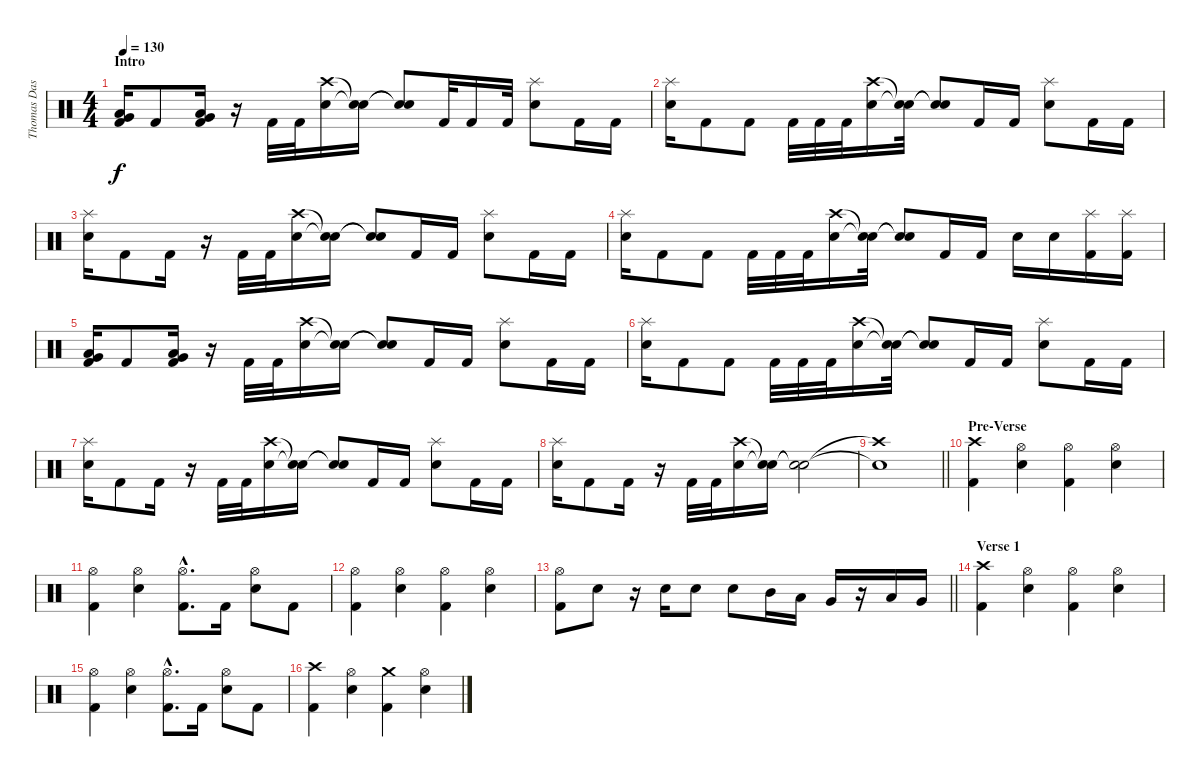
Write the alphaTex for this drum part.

\track ("Thomas Das Neves (Drums)" "Thomas Das") {instrument percussion}
\staff {score}
\articulation defaults
\ts (4 4)
\section ("" "Intro")
\tempo 130
\clef neutral
\ks c
("Very Low Tom (hit)" "Low Floor Tom (hit)" "Kick (hit) 2").16{dy f} "Kick (hit) 2".8 ("Very Low Tom (hit)" "Low Floor Tom (hit)" "Kick (hit) 2").16 r.16 "Kick (hit) 2".32 "Kick (hit) 2".32 ("Crash high (hit)" "Snare (hit) 2").16 ("Snare (hit)"{t} "Snare (hit)"{t}).16 ("Snare (hit)"{t} "Snare (hit)"{t}).8 "Kick (hit) 2".32 "Kick (hit) 2".16 "Kick (hit) 2".32 ("Splash (hit)" "Snare (hit) 2").8 "Kick (hit) 2".16 "Kick (hit) 2".16 |
("Splash (hit)" "Snare (hit) 2").16 "Kick (hit) 2".8 "Kick (hit) 2".8 "Kick (hit) 2".32 "Kick (hit) 2".32 "Kick (hit) 2".32 ("Crash high (hit)" "Snare (hit) 2").16 ("Snare (hit)"{t} "Snare (hit)"{t}).32 ("Snare (hit)"{t} "Snare (hit)"{t}).8 "Kick (hit) 2".16 "Kick (hit) 2".16 ("Splash (hit)" "Snare (hit) 2").8 "Kick (hit) 2".16 "Kick (hit) 2".16 |
("Splash (hit)" "Snare (hit) 2").16 "Kick (hit) 2".8 "Kick (hit) 2".16 r.16 "Kick (hit) 2".32 "Kick (hit) 2".32 ("Crash high (hit)" "Snare (hit) 2").16 ("Snare (hit)"{t} "Snare (hit)"{t}).16 ("Snare (hit)"{t} "Snare (hit)"{t}).8 "Kick (hit) 2".16 "Kick (hit) 2".16 ("Splash (hit)" "Snare (hit) 2").8 "Kick (hit) 2".16 "Kick (hit) 2".16 |
("Splash (hit)" "Snare (hit) 2").16 "Kick (hit) 2".8 "Kick (hit) 2".8 "Kick (hit) 2".32 "Kick (hit) 2".32 "Kick (hit) 2".32 ("Crash high (hit)" "Snare (hit) 2").16 ("Snare (hit)"{t} "Snare (hit)"{t}).32 ("Snare (hit)"{t} "Snare (hit)"{t}).8 "Kick (hit) 2".16 "Kick (hit) 2".16 "Snare (hit) 2".16 "Snare (hit) 2".16 ("Splash (hit)" "Kick (hit) 2").16 ("Splash (hit)" "Kick (hit) 2").16 |
("Very Low Tom (hit)" "Low Floor Tom (hit)" "Kick (hit) 2").16 "Kick (hit) 2".8 ("Very Low Tom (hit)" "Low Floor Tom (hit)" "Kick (hit) 2").16 r.16 "Kick (hit) 2".32 "Kick (hit) 2".32 ("Crash high (hit)" "Snare (hit) 2").16 ("Snare (hit)"{t} "Snare (hit)"{t}).16 ("Snare (hit)"{t} "Snare (hit)"{t}).8 "Kick (hit) 2".16 "Kick (hit) 2".16 ("Splash (hit)" "Snare (hit) 2").8 "Kick (hit) 2".16 "Kick (hit) 2".16 |
("Splash (hit)" "Snare (hit) 2").16 "Kick (hit) 2".8 "Kick (hit) 2".8 "Kick (hit) 2".32 "Kick (hit) 2".32 "Kick (hit) 2".32 ("Crash high (hit)" "Snare (hit) 2").16 ("Snare (hit)"{t} "Snare (hit)"{t}).32 ("Snare (hit)"{t} "Snare (hit)"{t}).8 "Kick (hit) 2".16 "Kick (hit) 2".16 ("Splash (hit)" "Snare (hit) 2").8 "Kick (hit) 2".16 "Kick (hit) 2".16 |
("Splash (hit)" "Snare (hit) 2").16 "Kick (hit) 2".8 "Kick (hit) 2".16 r.16 "Kick (hit) 2".32 "Kick (hit) 2".32 ("Crash high (hit)" "Snare (hit) 2").16 ("Snare (hit)"{t} "Snare (hit)"{t}).16 ("Snare (hit)"{t} "Snare (hit)"{t}).8 "Kick (hit) 2".16 "Kick (hit) 2".16 ("Splash (hit)" "Snare (hit) 2").8 "Kick (hit) 2".16 "Kick (hit) 2".16 |
("Splash (hit)" "Snare (hit) 2").16 "Kick (hit) 2".8 "Kick (hit) 2".16 r.16 "Kick (hit) 2".32 "Kick (hit) 2".32 ("Crash high (hit)" "Snare (hit) 2").16 ("Snare (hit)"{t} "Snare (hit)"{t}).16 ("Snare (hit)"{t} "Snare (hit)"{t}).2 |
\barLineRight lightlight
("Crash high (hit)"{t} "Snare (hit)"{t}).1 |
\section ("" "Pre-Verse")
("Crash high (hit)" "Kick (hit) 2").4 ("Hi-Hat (open)" "Snare (hit) 2").4 ("Hi-Hat (open)" "Kick (hit) 2").4 ("Hi-Hat (open)" "Snare (hit) 2").4 |
("Hi-Hat (open)" "Kick (hit) 2").4 ("Hi-Hat (open)" "Snare (hit) 2").4 ("Hi-Hat (open)"{hac} "Kick (hit) 2"{hac}).8{d} "Kick (hit) 2".16 ("Hi-Hat (open)" "Snare (hit) 2").8 "Kick (hit) 2".8 |
("Hi-Hat (open)" "Kick (hit) 2").4 ("Hi-Hat (open)" "Snare (hit) 2").4 ("Hi-Hat (open)" "Kick (hit) 2").4 ("Hi-Hat (open)" "Snare (hit) 2").4 |
\barLineRight lightlight
("Hi-Hat (open)" "Kick (hit) 2").8 "Snare (hit) 2".8 r.16 "Snare (hit) 2".16 "Snare (hit) 2".8 "Snare (hit) 2".8 "Mid Tom (hit)".16 "Low Tom (hit)".16 "Very Low Tom (hit)".16 r.16 "Low Tom (hit)".16 "Very Low Tom (hit)".16 |
\section ("" "Verse 1")
("Crash high (hit)" "Kick (hit) 2").4 ("Hi-Hat (open)" "Snare (hit) 2").4 ("Hi-Hat (open)" "Kick (hit) 2").4 ("Hi-Hat (open)" "Snare (hit) 2").4 |
("Hi-Hat (open)" "Kick (hit) 2").4 ("Hi-Hat (open)" "Snare (hit) 2").4 ("Hi-Hat (open)"{hac} "Kick (hit) 2"{hac}).8{d} "Kick (hit) 2".16 ("Hi-Hat (open)" "Snare (hit) 2").8 "Kick (hit) 2".8 |
("Crash high (hit)" "Kick (hit) 2").4 ("Hi-Hat (open)" "Snare (hit) 2").4 ("Crash medium (hit)" "Kick (hit) 2").4 ("Hi-Hat (open)" "Snare (hit) 2").4
